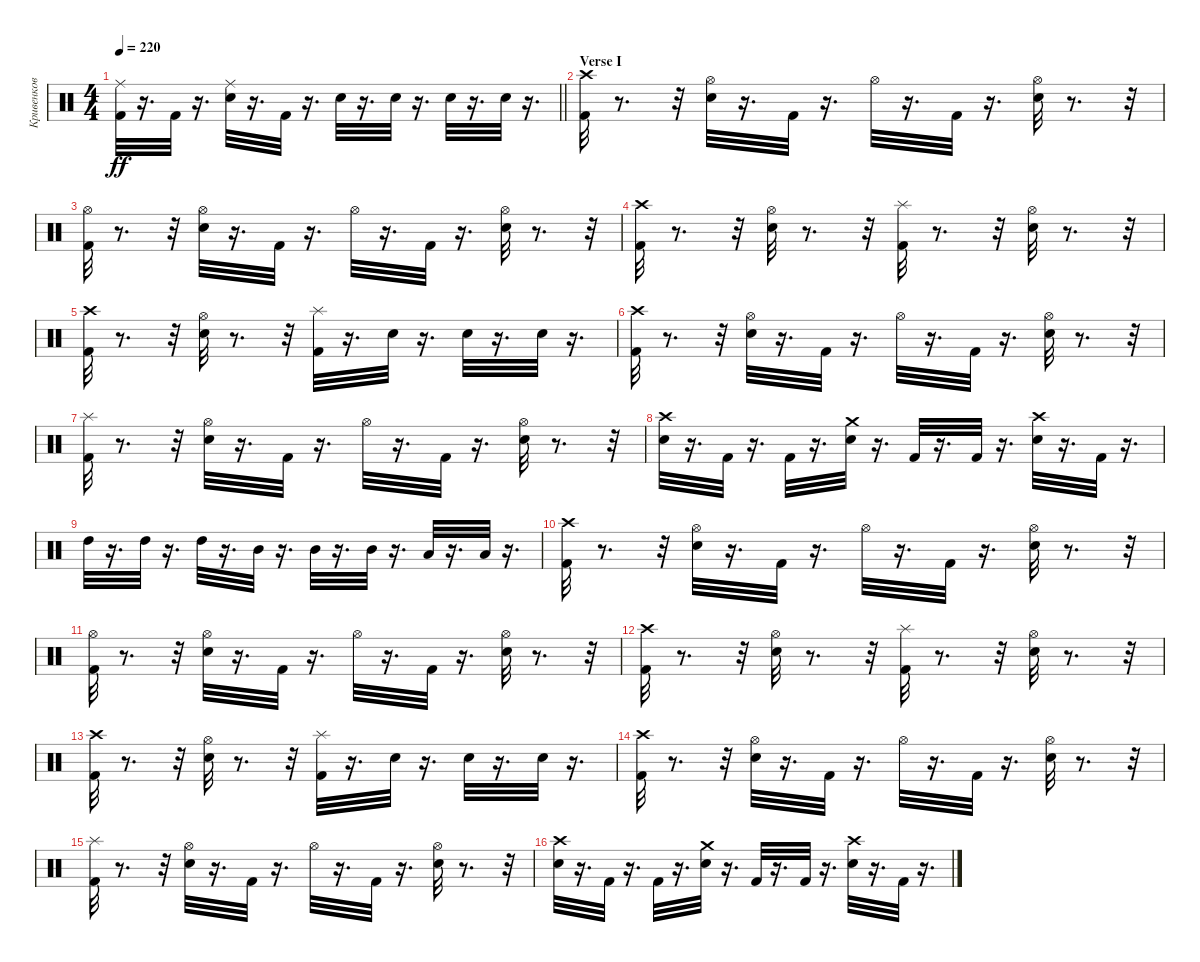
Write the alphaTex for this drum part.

\track ("Кривенков" "Кривенков") {instrument percussion}
\staff {score}
\articulation defaults
\ts (4 4)
\tempo 220
\clef neutral
\barLineRight lightlight
\ks c
("Ride (middle)" "Kick (hit) 2").32{dy ff} r.16{d} "Kick (hit) 2".32 r.16{d} ("Ride (middle)" "Electric Snare (hit)").32 r.16{d} "Kick (hit) 2".32 r.16{d} "Electric Snare (hit)".32 r.16{d} "Electric Snare (hit)".32 r.16{d} "Electric Snare (hit)".32 r.16{d} "Electric Snare (hit)".32 r.16{d} |
\section ("" "Verse I")
("Crash high (hit)" "Kick (hit) 2").32 r.8{d} r.32 ("Hi-Hat (open)" "Electric Snare (hit)").32 r.16{d} "Kick (hit) 2".32 r.16{d} "Hi-Hat (open)".32 r.16{d} "Kick (hit) 2".32 r.16{d} ("Hi-Hat (open)" "Electric Snare (hit)").32 r.8{d} r.32 |
("Kick (hit) 2" "Hi-Hat (open)").32 r.8{d} r.32 ("Electric Snare (hit)" "Hi-Hat (open)").32 r.16{d} "Kick (hit) 2".32 r.16{d} "Hi-Hat (open)".32 r.16{d} "Kick (hit) 2".32 r.16{d} ("Electric Snare (hit)" "Hi-Hat (open)").32 r.8{d} r.32 |
("Crash high (hit)" "Kick (hit) 2").32 r.8{d} r.32 ("Hi-Hat (open)" "Electric Snare (hit)").32 r.8{d} r.32 ("Splash (hit)" "Kick (hit) 2").32 r.8{d} r.32 ("Electric Snare (hit)" "Hi-Hat (open)").32 r.8{d} r.32 |
("Crash high (hit)" "Kick (hit) 2").32 r.8{d} r.32 ("Hi-Hat (open)" "Electric Snare (hit)").32 r.8{d} r.32 ("Splash (hit)" "Kick (hit) 2").32 r.16{d} "Electric Snare (hit)".32 r.16{d} "Electric Snare (hit)".32 r.16{d} "Electric Snare (hit)".32 r.16{d} |
("Crash high (hit)" "Kick (hit) 2").32 r.8{d} r.32 ("Hi-Hat (open)" "Electric Snare (hit)").32 r.16{d} "Kick (hit) 2".32 r.16{d} "Hi-Hat (open)".32 r.16{d} "Kick (hit) 2".32 r.16{d} ("Electric Snare (hit)" "Hi-Hat (open)").32 r.8{d} r.32 |
("Kick (hit) 2" "Splash (hit)").32 r.8{d} r.32 ("Electric Snare (hit)" "Hi-Hat (open)").32 r.16{d} "Kick (hit) 2".32 r.16{d} "Hi-Hat (open)".32 r.16{d} "Kick (hit) 2".32 r.16{d} ("Electric Snare (hit)" "Hi-Hat (open)").32 r.8{d} r.32 |
("Crash high (hit)" "Snare (hit) 2").32 r.16{d} "Kick (hit) 2".32 r.16{d} "Kick (hit) 2".32 r.16{d} ("Crash medium (hit)" "Electric Snare (hit)").32 r.16{d} "Kick (hit) 2".32 r.16{d} "Kick (hit) 2".32 r.16{d} ("Crash high (hit)" "Electric Snare (hit)").32 r.16{d} "Kick (hit) 2".32 r.16{d} |
"High Tom (hit)".32 r.16{d} "High Tom (hit)".32 r.16{d} "High Tom (hit)".32 r.16{d} "Mid Tom (hit)".32 r.16{d} "Mid Tom (hit)".32 r.16{d} "Mid Tom (hit)".32 r.16{d} "Low Tom (hit)".32 r.16{d} "Low Tom (hit)".32 r.16{d} |
("Crash high (hit)" "Kick (hit) 2").32 r.8{d} r.32 ("Hi-Hat (open)" "Electric Snare (hit)").32 r.16{d} "Kick (hit) 2".32 r.16{d} "Hi-Hat (open)".32 r.16{d} "Kick (hit) 2".32 r.16{d} ("Hi-Hat (open)" "Electric Snare (hit)").32 r.8{d} r.32 |
("Kick (hit) 2" "Hi-Hat (open)").32 r.8{d} r.32 ("Electric Snare (hit)" "Hi-Hat (open)").32 r.16{d} "Kick (hit) 2".32 r.16{d} "Hi-Hat (open)".32 r.16{d} "Kick (hit) 2".32 r.16{d} ("Electric Snare (hit)" "Hi-Hat (open)").32 r.8{d} r.32 |
("Crash high (hit)" "Kick (hit) 2").32 r.8{d} r.32 ("Hi-Hat (open)" "Electric Snare (hit)").32 r.8{d} r.32 ("Splash (hit)" "Kick (hit) 2").32 r.8{d} r.32 ("Electric Snare (hit)" "Hi-Hat (open)").32 r.8{d} r.32 |
("Crash high (hit)" "Kick (hit) 2").32 r.8{d} r.32 ("Hi-Hat (open)" "Electric Snare (hit)").32 r.8{d} r.32 ("Splash (hit)" "Kick (hit) 2").32 r.16{d} "Electric Snare (hit)".32 r.16{d} "Electric Snare (hit)".32 r.16{d} "Electric Snare (hit)".32 r.16{d} |
("Crash high (hit)" "Kick (hit) 2").32 r.8{d} r.32 ("Hi-Hat (open)" "Electric Snare (hit)").32 r.16{d} "Kick (hit) 2".32 r.16{d} "Hi-Hat (open)".32 r.16{d} "Kick (hit) 2".32 r.16{d} ("Electric Snare (hit)" "Hi-Hat (open)").32 r.8{d} r.32 |
("Kick (hit) 2" "Splash (hit)").32 r.8{d} r.32 ("Electric Snare (hit)" "Hi-Hat (open)").32 r.16{d} "Kick (hit) 2".32 r.16{d} "Hi-Hat (open)".32 r.16{d} "Kick (hit) 2".32 r.16{d} ("Electric Snare (hit)" "Hi-Hat (open)").32 r.8{d} r.32 |
("Crash high (hit)" "Electric Snare (hit)").32 r.16{d} "Kick (hit) 2".32 r.16{d} "Kick (hit) 2".32 r.16{d} ("Crash medium (hit)" "Electric Snare (hit)").32 r.16{d} "Kick (hit) 2".32 r.16{d} "Kick (hit) 2".32 r.16{d} ("Crash high (hit)" "Electric Snare (hit)").32 r.16{d} "Kick (hit) 2".32 r.16{d}
